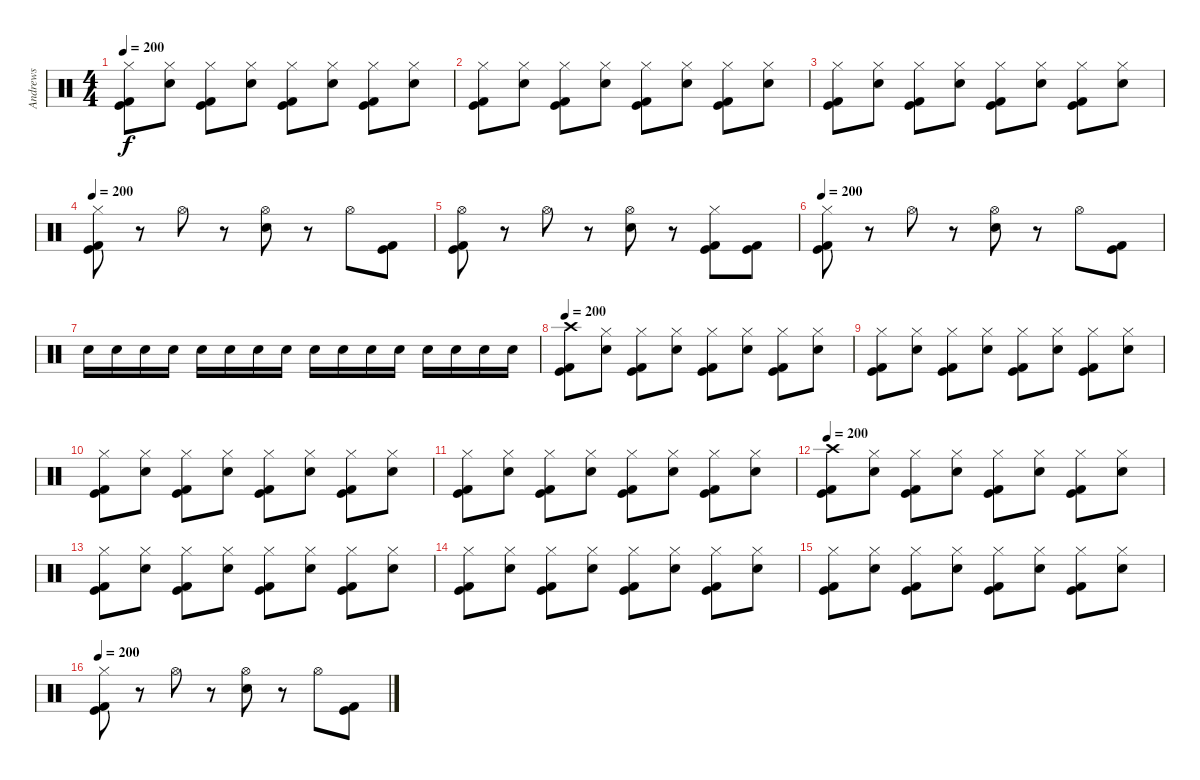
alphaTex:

\track ("Andrews" "Andrews") {instrument percussion}
\staff {score}
\articulation defaults
\ts (4 4)
\tempo 200
\clef neutral
\ks c
("Hi-Hat (closed)" "Kick (hit) 2" "Kick (hit)").8{dy f} ("Hi-Hat (closed)" "Electric Snare (hit)").8 ("Hi-Hat (closed)" "Kick (hit) 2" "Kick (hit)").8 ("Hi-Hat (closed)" "Electric Snare (hit)").8 ("Hi-Hat (closed)" "Kick (hit) 2" "Kick (hit)").8 ("Hi-Hat (closed)" "Electric Snare (hit)").8 ("Hi-Hat (closed)" "Kick (hit) 2" "Kick (hit)").8 ("Hi-Hat (closed)" "Electric Snare (hit)").8 |
("Hi-Hat (closed)" "Kick (hit) 2" "Kick (hit)").8 ("Hi-Hat (closed)" "Electric Snare (hit)").8 ("Hi-Hat (closed)" "Kick (hit) 2" "Kick (hit)").8 ("Hi-Hat (closed)" "Electric Snare (hit)").8 ("Hi-Hat (closed)" "Kick (hit) 2" "Kick (hit)").8 ("Hi-Hat (closed)" "Electric Snare (hit)").8 ("Hi-Hat (closed)" "Kick (hit) 2" "Kick (hit)").8 ("Hi-Hat (closed)" "Electric Snare (hit)").8 |
("Hi-Hat (closed)" "Kick (hit) 2" "Kick (hit)").8 ("Hi-Hat (closed)" "Electric Snare (hit)").8 ("Hi-Hat (closed)" "Kick (hit) 2" "Kick (hit)").8 ("Hi-Hat (closed)" "Electric Snare (hit)").8 ("Hi-Hat (closed)" "Kick (hit) 2" "Kick (hit)").8 ("Hi-Hat (closed)" "Electric Snare (hit)").8 ("Hi-Hat (closed)" "Kick (hit) 2" "Kick (hit)").8 ("Hi-Hat (closed)" "Electric Snare (hit)").8 |
\tempo 200
("Hi-Hat (closed)" "Kick (hit) 2" "Kick (hit)").8 r.8 "Hi-Hat (open)".8 r.8 ("Hi-Hat (open)" "Electric Snare (hit)").8 r.8 "Hi-Hat (open)".8 ("Kick (hit) 2" "Kick (hit)").8 |
("Hi-Hat (open)" "Kick (hit) 2" "Kick (hit)").8 r.8 "Hi-Hat (open)".8 r.8 ("Hi-Hat (open)" "Electric Snare (hit)").8 r.8 ("Hi-Hat (closed)" "Kick (hit) 2" "Kick (hit)").8 ("Kick (hit) 2" "Kick (hit)").8 |
\tempo 200
("Hi-Hat (closed)" "Kick (hit) 2" "Kick (hit)").8 r.8 "Hi-Hat (open)".8 r.8 ("Hi-Hat (open)" "Electric Snare (hit)").8 r.8 "Hi-Hat (open)".8 ("Kick (hit) 2" "Kick (hit)").8 |
"Electric Snare (hit)".16 "Electric Snare (hit)".16 "Electric Snare (hit)".16 "Electric Snare (hit)".16 "Electric Snare (hit)".16 "Electric Snare (hit)".16 "Electric Snare (hit)".16 "Electric Snare (hit)".16 "Electric Snare (hit)".16 "Electric Snare (hit)".16 "Electric Snare (hit)".16 "Electric Snare (hit)".16 "Electric Snare (hit)".16 "Electric Snare (hit)".16 "Electric Snare (hit)".16 "Electric Snare (hit)".16 |
\tempo 200
("Crash high (hit)" "Kick (hit) 2" "Kick (hit)").8 ("Hi-Hat (closed)" "Electric Snare (hit)").8 ("Hi-Hat (closed)" "Kick (hit) 2" "Kick (hit)").8 ("Hi-Hat (closed)" "Electric Snare (hit)").8 ("Hi-Hat (closed)" "Kick (hit) 2" "Kick (hit)").8 ("Hi-Hat (closed)" "Electric Snare (hit)").8 ("Hi-Hat (closed)" "Kick (hit) 2" "Kick (hit)").8 ("Hi-Hat (closed)" "Electric Snare (hit)").8 |
("Hi-Hat (closed)" "Kick (hit) 2" "Kick (hit)").8 ("Hi-Hat (closed)" "Electric Snare (hit)").8 ("Hi-Hat (closed)" "Kick (hit) 2" "Kick (hit)").8 ("Hi-Hat (closed)" "Electric Snare (hit)").8 ("Hi-Hat (closed)" "Kick (hit) 2" "Kick (hit)").8 ("Hi-Hat (closed)" "Electric Snare (hit)").8 ("Hi-Hat (closed)" "Kick (hit) 2" "Kick (hit)").8 ("Hi-Hat (closed)" "Electric Snare (hit)").8 |
("Hi-Hat (closed)" "Kick (hit) 2" "Kick (hit)").8 ("Hi-Hat (closed)" "Electric Snare (hit)").8 ("Hi-Hat (closed)" "Kick (hit) 2" "Kick (hit)").8 ("Hi-Hat (closed)" "Electric Snare (hit)").8 ("Hi-Hat (closed)" "Kick (hit) 2" "Kick (hit)").8 ("Hi-Hat (closed)" "Electric Snare (hit)").8 ("Hi-Hat (closed)" "Kick (hit) 2" "Kick (hit)").8 ("Hi-Hat (closed)" "Electric Snare (hit)").8 |
("Hi-Hat (closed)" "Kick (hit) 2" "Kick (hit)").8 ("Hi-Hat (closed)" "Electric Snare (hit)").8 ("Hi-Hat (closed)" "Kick (hit) 2" "Kick (hit)").8 ("Hi-Hat (closed)" "Electric Snare (hit)").8 ("Hi-Hat (closed)" "Kick (hit) 2" "Kick (hit)").8 ("Hi-Hat (closed)" "Electric Snare (hit)").8 ("Hi-Hat (closed)" "Kick (hit) 2" "Kick (hit)").8 ("Hi-Hat (closed)" "Electric Snare (hit)").8 |
\tempo 200
("Crash high (hit)" "Kick (hit) 2" "Kick (hit)").8 ("Hi-Hat (closed)" "Electric Snare (hit)").8 ("Hi-Hat (closed)" "Kick (hit) 2" "Kick (hit)").8 ("Hi-Hat (closed)" "Electric Snare (hit)").8 ("Hi-Hat (closed)" "Kick (hit) 2" "Kick (hit)").8 ("Hi-Hat (closed)" "Electric Snare (hit)").8 ("Hi-Hat (closed)" "Kick (hit) 2" "Kick (hit)").8 ("Hi-Hat (closed)" "Electric Snare (hit)").8 |
("Hi-Hat (closed)" "Kick (hit) 2" "Kick (hit)").8 ("Hi-Hat (closed)" "Electric Snare (hit)").8 ("Hi-Hat (closed)" "Kick (hit) 2" "Kick (hit)").8 ("Hi-Hat (closed)" "Electric Snare (hit)").8 ("Hi-Hat (closed)" "Kick (hit) 2" "Kick (hit)").8 ("Hi-Hat (closed)" "Electric Snare (hit)").8 ("Hi-Hat (closed)" "Kick (hit) 2" "Kick (hit)").8 ("Hi-Hat (closed)" "Electric Snare (hit)").8 |
("Hi-Hat (closed)" "Kick (hit) 2" "Kick (hit)").8 ("Hi-Hat (closed)" "Electric Snare (hit)").8 ("Hi-Hat (closed)" "Kick (hit) 2" "Kick (hit)").8 ("Hi-Hat (closed)" "Electric Snare (hit)").8 ("Hi-Hat (closed)" "Kick (hit) 2" "Kick (hit)").8 ("Hi-Hat (closed)" "Electric Snare (hit)").8 ("Hi-Hat (closed)" "Kick (hit) 2" "Kick (hit)").8 ("Hi-Hat (closed)" "Electric Snare (hit)").8 |
("Hi-Hat (closed)" "Kick (hit) 2" "Kick (hit)").8 ("Hi-Hat (closed)" "Electric Snare (hit)").8 ("Hi-Hat (closed)" "Kick (hit) 2" "Kick (hit)").8 ("Hi-Hat (closed)" "Electric Snare (hit)").8 ("Hi-Hat (closed)" "Kick (hit) 2" "Kick (hit)").8 ("Hi-Hat (closed)" "Electric Snare (hit)").8 ("Hi-Hat (closed)" "Kick (hit) 2" "Kick (hit)").8 ("Hi-Hat (closed)" "Electric Snare (hit)").8 |
\tempo 200
("Hi-Hat (closed)" "Kick (hit) 2" "Kick (hit)").8 r.8 "Hi-Hat (open)".8 r.8 ("Hi-Hat (open)" "Electric Snare (hit)").8 r.8 "Hi-Hat (open)".8 ("Kick (hit) 2" "Kick (hit)").8
